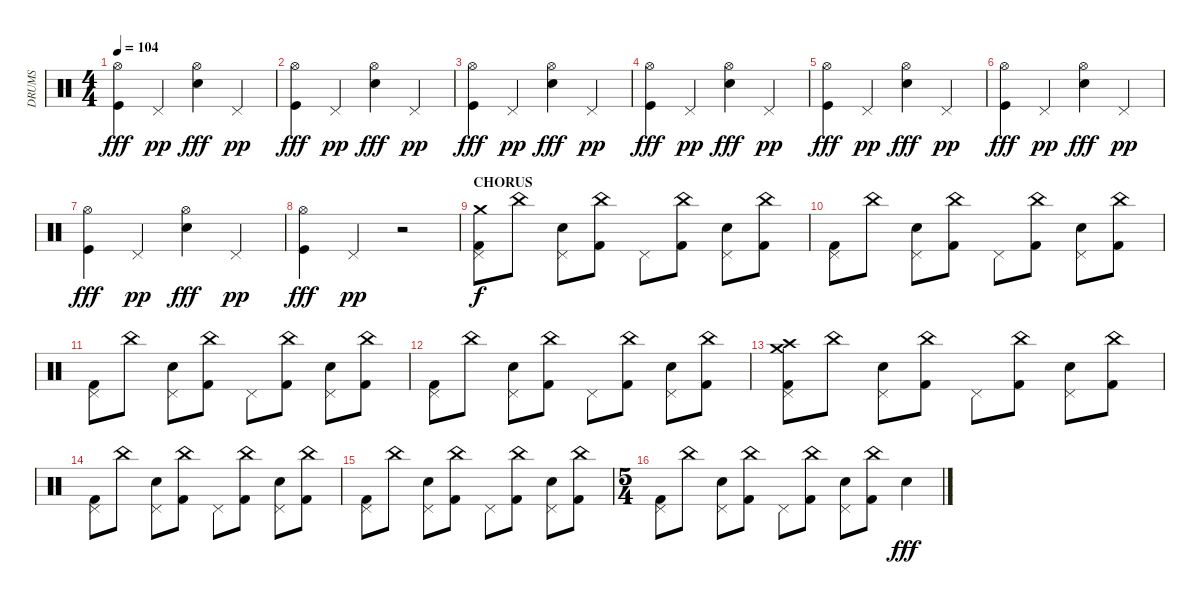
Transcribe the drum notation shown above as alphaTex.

\track ("DRUMS" "DRUMS") {instrument percussion}
\staff {score}
\articulation defaults
\ts (4 4)
\tempo 104
\clef neutral
\ks c
("Hi-Hat (open)" "Kick (hit)").4{dy fff} "Pedal Hi-Hat (hit)".4{dy pp} ("Hi-Hat (open)" "Snare (hit) 2").4{dy fff} "Pedal Hi-Hat (hit)".4{dy pp} |
("Hi-Hat (open)" "Kick (hit)").4{dy fff} "Pedal Hi-Hat (hit)".4{dy pp} ("Hi-Hat (open)" "Snare (hit) 2").4{dy fff} "Pedal Hi-Hat (hit)".4{dy pp} |
("Hi-Hat (open)" "Kick (hit)").4{dy fff} "Pedal Hi-Hat (hit)".4{dy pp} ("Hi-Hat (open)" "Snare (hit) 2").4{dy fff} "Pedal Hi-Hat (hit)".4{dy pp} |
("Hi-Hat (open)" "Kick (hit)").4{dy fff} "Pedal Hi-Hat (hit)".4{dy pp} ("Hi-Hat (open)" "Snare (hit) 2").4{dy fff} "Pedal Hi-Hat (hit)".4{dy pp} |
("Hi-Hat (open)" "Kick (hit)").4{dy fff} "Pedal Hi-Hat (hit)".4{dy pp} ("Hi-Hat (open)" "Snare (hit) 2").4{dy fff} "Pedal Hi-Hat (hit)".4{dy pp} |
("Hi-Hat (open)" "Kick (hit)").4{dy fff} "Pedal Hi-Hat (hit)".4{dy pp} ("Hi-Hat (open)" "Snare (hit) 2").4{dy fff} "Pedal Hi-Hat (hit)".4{dy pp} |
("Hi-Hat (open)" "Kick (hit)").4{dy fff} "Pedal Hi-Hat (hit)".4{dy pp} ("Hi-Hat (open)" "Snare (hit) 2").4{dy fff} "Pedal Hi-Hat (hit)".4{dy pp} |
("Hi-Hat (open)" "Kick (hit)").4{dy fff} "Pedal Hi-Hat (hit)".4{dy pp} r.2 |
\section ("" "CHORUS")
("Crash medium (hit)" "Pedal Hi-Hat (hit)" "Kick (hit) 2").8{dy f} "China (hit)".8 ("Electric Snare (hit)" "Pedal Hi-Hat (hit)").8 ("China (hit)" "Kick (hit) 2").8 "Pedal Hi-Hat (hit)".8 ("China (hit)" "Kick (hit) 2").8 ("Electric Snare (hit)" "Pedal Hi-Hat (hit)").8 ("China (hit)" "Kick (hit) 2").8 |
("Pedal Hi-Hat (hit)" "Kick (hit) 2").8 "China (hit)".8 ("Electric Snare (hit)" "Pedal Hi-Hat (hit)").8 ("China (hit)" "Kick (hit) 2").8 "Pedal Hi-Hat (hit)".8 ("China (hit)" "Kick (hit) 2").8 ("Electric Snare (hit)" "Pedal Hi-Hat (hit)").8 ("China (hit)" "Kick (hit) 2").8 |
("Pedal Hi-Hat (hit)" "Kick (hit) 2").8 "China (hit)".8 ("Electric Snare (hit)" "Pedal Hi-Hat (hit)").8 ("China (hit)" "Kick (hit) 2").8 "Pedal Hi-Hat (hit)".8 ("China (hit)" "Kick (hit) 2").8 ("Electric Snare (hit)" "Pedal Hi-Hat (hit)").8 ("China (hit)" "Kick (hit) 2").8 |
("Pedal Hi-Hat (hit)" "Kick (hit) 2").8 "China (hit)".8 ("Electric Snare (hit)" "Pedal Hi-Hat (hit)").8 ("China (hit)" "Kick (hit) 2").8 "Pedal Hi-Hat (hit)".8 ("China (hit)" "Kick (hit) 2").8 ("Electric Snare (hit)" "Pedal Hi-Hat (hit)").8 ("China (hit)" "Kick (hit) 2").8 |
("Crash medium (hit)" "Crash high (hit)" "Pedal Hi-Hat (hit)" "Kick (hit) 2").8 "China (hit)".8 ("Electric Snare (hit)" "Pedal Hi-Hat (hit)").8 ("China (hit)" "Kick (hit) 2").8 "Pedal Hi-Hat (hit)".8 ("China (hit)" "Kick (hit) 2").8 ("Electric Snare (hit)" "Pedal Hi-Hat (hit)").8 ("China (hit)" "Kick (hit) 2").8 |
("Pedal Hi-Hat (hit)" "Kick (hit) 2").8 "China (hit)".8 ("Electric Snare (hit)" "Pedal Hi-Hat (hit)").8 ("China (hit)" "Kick (hit) 2").8 "Pedal Hi-Hat (hit)".8 ("China (hit)" "Kick (hit) 2").8 ("Electric Snare (hit)" "Pedal Hi-Hat (hit)").8 ("China (hit)" "Kick (hit) 2").8 |
("Pedal Hi-Hat (hit)" "Kick (hit) 2").8 "China (hit)".8 ("Electric Snare (hit)" "Pedal Hi-Hat (hit)").8 ("China (hit)" "Kick (hit) 2").8 "Pedal Hi-Hat (hit)".8 ("China (hit)" "Kick (hit) 2").8 ("Electric Snare (hit)" "Pedal Hi-Hat (hit)").8 ("China (hit)" "Kick (hit) 2").8 |
\ts (5 4)
("Pedal Hi-Hat (hit)" "Kick (hit) 2").8 "China (hit)".8 ("Electric Snare (hit)" "Pedal Hi-Hat (hit)").8 ("China (hit)" "Kick (hit) 2").8 "Pedal Hi-Hat (hit)".8 ("China (hit)" "Kick (hit) 2").8 ("Electric Snare (hit)" "Pedal Hi-Hat (hit)").8 ("China (hit)" "Kick (hit) 2").8 "Snare (hit) 2".4{dy fff}
